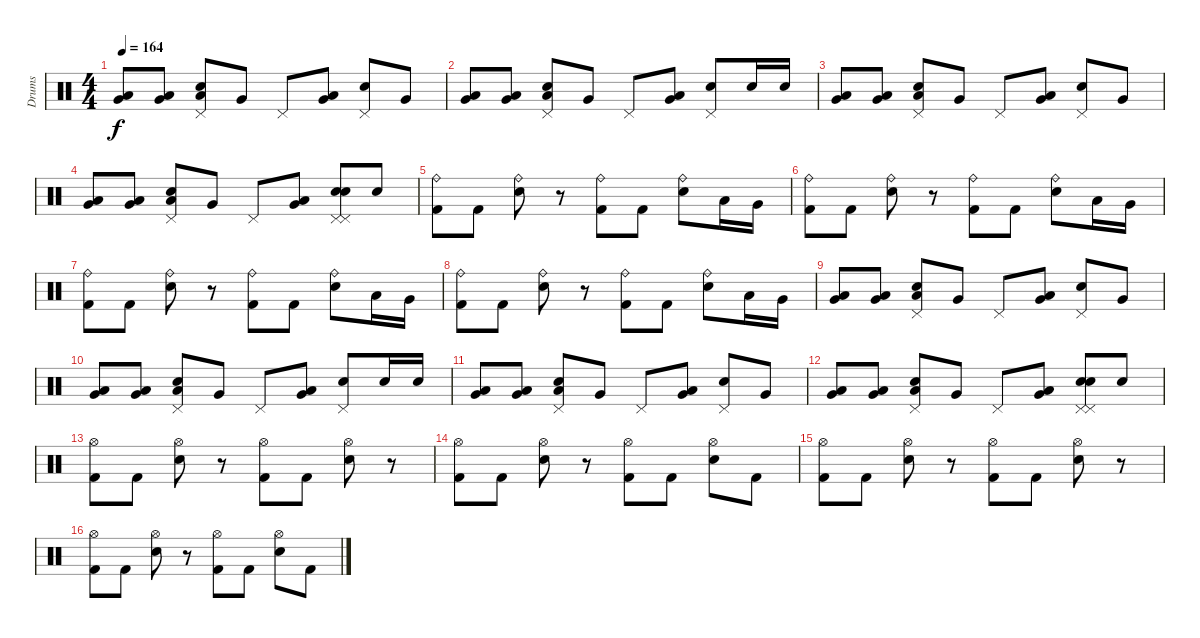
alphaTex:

\track ("Drums" "Drums") {instrument percussion}
\staff {score}
\articulation defaults
\ts (4 4)
\tempo 164
\clef neutral
\ks c
("Very Low Tom (hit)" "Low Floor Tom (hit)").8{dy f} ("Very Low Tom (hit)" "Low Floor Tom (hit)").8 ("Electric Snare (hit)" "Pedal Hi-Hat (hit)" "Low Floor Tom (hit)").8 "Very Low Tom (hit)".8 "Pedal Hi-Hat (hit)".8 ("Very Low Tom (hit)" "Low Floor Tom (hit)").8 ("Electric Snare (hit)" "Pedal Hi-Hat (hit)").8 "Very Low Tom (hit)".8 |
("Very Low Tom (hit)" "Low Floor Tom (hit)").8 ("Very Low Tom (hit)" "Low Floor Tom (hit)").8 ("Electric Snare (hit)" "Pedal Hi-Hat (hit)" "Low Floor Tom (hit)").8 "Very Low Tom (hit)".8 "Pedal Hi-Hat (hit)".8 ("Very Low Tom (hit)" "Low Floor Tom (hit)").8 ("Electric Snare (hit)" "Pedal Hi-Hat (hit)").8 "Electric Snare (hit)".16 "Electric Snare (hit)".16 |
("Very Low Tom (hit)" "Low Floor Tom (hit)").8 ("Very Low Tom (hit)" "Low Floor Tom (hit)").8 ("Electric Snare (hit)" "Pedal Hi-Hat (hit)" "Low Floor Tom (hit)").8 "Very Low Tom (hit)".8 "Pedal Hi-Hat (hit)".8 ("Very Low Tom (hit)" "Low Floor Tom (hit)").8 ("Electric Snare (hit)" "Pedal Hi-Hat (hit)").8 "Very Low Tom (hit)".8 |
("Very Low Tom (hit)" "Low Floor Tom (hit)").8 ("Very Low Tom (hit)" "Low Floor Tom (hit)").8 ("Electric Snare (hit)" "Pedal Hi-Hat (hit)" "Low Floor Tom (hit)").8 "Very Low Tom (hit)".8 "Pedal Hi-Hat (hit)".8 ("Very Low Tom (hit)" "Low Floor Tom (hit)").8 ("Electric Snare (hit)" "Pedal Hi-Hat (hit)" "Electric Snare (hit)" "Pedal Hi-Hat (hit)").8 "Electric Snare (hit)".8 |
("Ride (bell)" "Kick (hit) 2").8 "Kick (hit) 2".8 ("Ride (bell)" "Electric Snare (hit)").8 r.8 ("Ride (bell)" "Kick (hit) 2").8 "Kick (hit) 2".8 ("Ride (bell)" "Electric Snare (hit)").8 "Low Tom (hit)".16 "Very Low Tom (hit)".16 |
("Ride (bell)" "Kick (hit) 2").8 "Kick (hit) 2".8 ("Ride (bell)" "Electric Snare (hit)").8 r.8 ("Ride (bell)" "Kick (hit) 2").8 "Kick (hit) 2".8 ("Ride (bell)" "Electric Snare (hit)").8 "Low Tom (hit)".16 "Very Low Tom (hit)".16 |
("Ride (bell)" "Kick (hit) 2").8 "Kick (hit) 2".8 ("Ride (bell)" "Electric Snare (hit)").8 r.8 ("Ride (bell)" "Kick (hit) 2").8 "Kick (hit) 2".8 ("Ride (bell)" "Electric Snare (hit)").8 "Low Tom (hit)".16 "Very Low Tom (hit)".16 |
("Ride (bell)" "Kick (hit) 2").8 "Kick (hit) 2".8 ("Ride (bell)" "Electric Snare (hit)").8 r.8 ("Ride (bell)" "Kick (hit) 2").8 "Kick (hit) 2".8 ("Ride (bell)" "Electric Snare (hit)").8 "Low Tom (hit)".16 "Very Low Tom (hit)".16 |
("Very Low Tom (hit)" "Low Floor Tom (hit)").8 ("Very Low Tom (hit)" "Low Floor Tom (hit)").8 ("Electric Snare (hit)" "Pedal Hi-Hat (hit)" "Low Floor Tom (hit)").8 "Very Low Tom (hit)".8 "Pedal Hi-Hat (hit)".8 ("Very Low Tom (hit)" "Low Floor Tom (hit)").8 ("Electric Snare (hit)" "Pedal Hi-Hat (hit)").8 "Very Low Tom (hit)".8 |
("Very Low Tom (hit)" "Low Floor Tom (hit)").8 ("Very Low Tom (hit)" "Low Floor Tom (hit)").8 ("Electric Snare (hit)" "Pedal Hi-Hat (hit)" "Low Floor Tom (hit)").8 "Very Low Tom (hit)".8 "Pedal Hi-Hat (hit)".8 ("Very Low Tom (hit)" "Low Floor Tom (hit)").8 ("Electric Snare (hit)" "Pedal Hi-Hat (hit)").8 "Electric Snare (hit)".16 "Electric Snare (hit)".16 |
("Very Low Tom (hit)" "Low Floor Tom (hit)").8 ("Very Low Tom (hit)" "Low Floor Tom (hit)").8 ("Electric Snare (hit)" "Pedal Hi-Hat (hit)" "Low Floor Tom (hit)").8 "Very Low Tom (hit)".8 "Pedal Hi-Hat (hit)".8 ("Very Low Tom (hit)" "Low Floor Tom (hit)").8 ("Electric Snare (hit)" "Pedal Hi-Hat (hit)").8 "Very Low Tom (hit)".8 |
("Very Low Tom (hit)" "Low Floor Tom (hit)").8 ("Very Low Tom (hit)" "Low Floor Tom (hit)").8 ("Electric Snare (hit)" "Pedal Hi-Hat (hit)" "Low Floor Tom (hit)").8 "Very Low Tom (hit)".8 "Pedal Hi-Hat (hit)".8 ("Very Low Tom (hit)" "Low Floor Tom (hit)").8 ("Electric Snare (hit)" "Pedal Hi-Hat (hit)" "Electric Snare (hit)" "Pedal Hi-Hat (hit)").8 "Electric Snare (hit)".8 |
("Hi-Hat (open)" "Kick (hit) 2").8 "Kick (hit) 2".8 ("Hi-Hat (open)" "Electric Snare (hit)").8 r.8 ("Hi-Hat (open)" "Kick (hit) 2").8 "Kick (hit) 2".8 ("Hi-Hat (open)" "Electric Snare (hit)").8 r.8 |
("Hi-Hat (open)" "Kick (hit) 2").8 "Kick (hit) 2".8 ("Hi-Hat (open)" "Electric Snare (hit)").8 r.8 ("Hi-Hat (open)" "Kick (hit) 2").8 "Kick (hit) 2".8 ("Hi-Hat (open)" "Electric Snare (hit)").8 "Kick (hit) 2".8 |
("Hi-Hat (open)" "Kick (hit) 2").8 "Kick (hit) 2".8 ("Hi-Hat (open)" "Electric Snare (hit)").8 r.8 ("Hi-Hat (open)" "Kick (hit) 2").8 "Kick (hit) 2".8 ("Hi-Hat (open)" "Electric Snare (hit)").8 r.8 |
("Hi-Hat (open)" "Kick (hit) 2").8 "Kick (hit) 2".8 ("Hi-Hat (open)" "Electric Snare (hit)").8 r.8 ("Hi-Hat (open)" "Kick (hit) 2").8 "Kick (hit) 2".8 ("Hi-Hat (open)" "Electric Snare (hit)").8 "Kick (hit) 2".8
